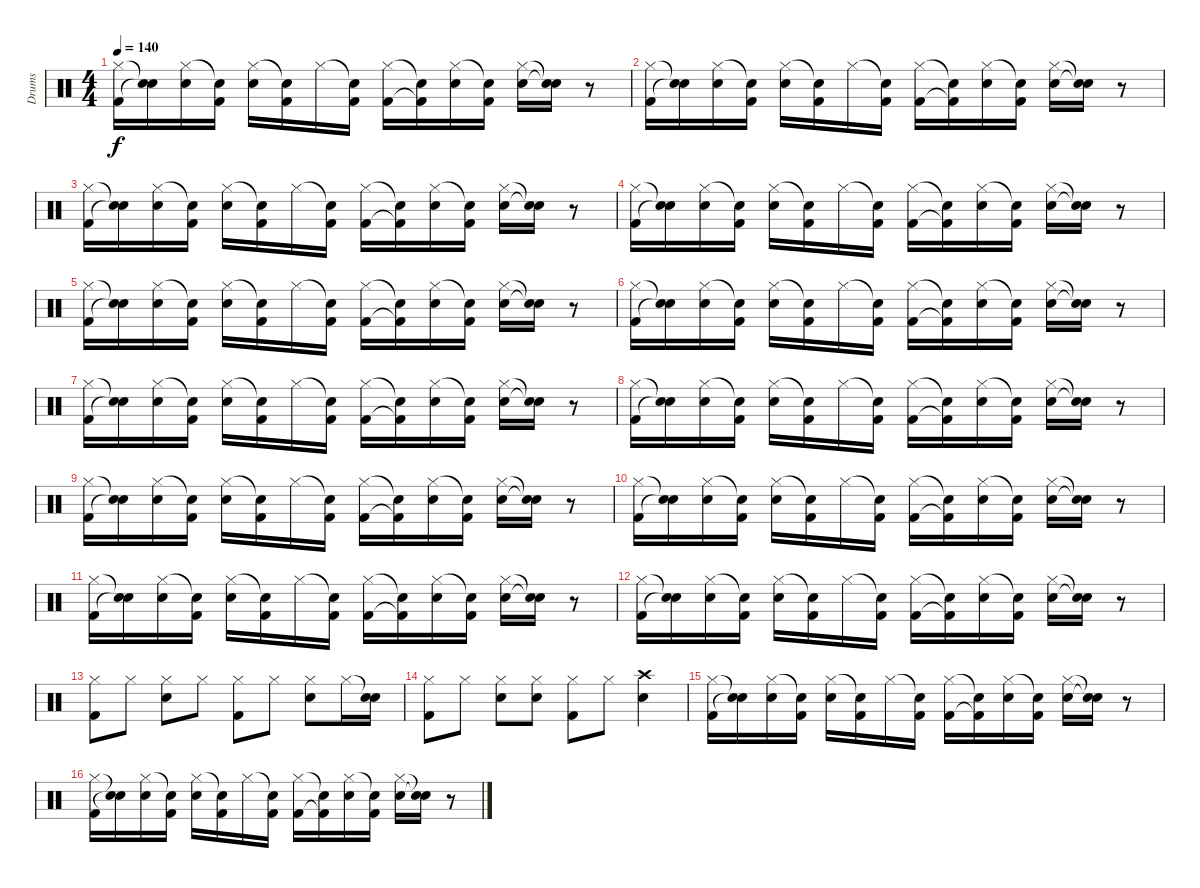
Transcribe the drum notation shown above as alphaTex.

\track ("Drums" "Drums") {instrument percussion}
\staff {score}
\articulation defaults
\ts (4 4)
\tempo 140
\clef neutral
\ks c
("Hi-Hat (closed)" "Kick (hit) 2").16{dy f} ("Snare (hit)"{t} "Snare (hit)"{t}).16 ("Hi-Hat (closed)" "Snare (hit) 2").16 ("Snare (hit)"{t} "Kick (hit) 2").16 ("Hi-Hat (closed)" "Snare (hit) 2").16 ("Snare (hit)"{t} "Kick (hit) 2").16 "Hi-Hat (closed)".16 ("Snare (hit)"{t} "Kick (hit) 2").16 ("Hi-Hat (closed)" "Kick (hit) 2").16 ("Snare (hit)"{t} "Kick (hit) 2"{t}).16 ("Hi-Hat (closed)" "Snare (hit) 2").16 ("Snare (hit)"{t} "Kick (hit) 2").16 ("Hi-Hat (closed)" "Snare (hit) 2").16 ("Snare (hit)"{t} "Snare (hit)"{t}).16 r.8 |
("Hi-Hat (closed)" "Kick (hit) 2").16 ("Snare (hit)"{t} "Snare (hit)"{t}).16 ("Hi-Hat (closed)" "Snare (hit) 2").16 ("Snare (hit)"{t} "Kick (hit) 2").16 ("Hi-Hat (closed)" "Snare (hit) 2").16 ("Snare (hit)"{t} "Kick (hit) 2").16 "Hi-Hat (closed)".16 ("Snare (hit)"{t} "Kick (hit) 2").16 ("Hi-Hat (closed)" "Kick (hit) 2").16 ("Snare (hit)"{t} "Kick (hit) 2"{t}).16 ("Hi-Hat (closed)" "Snare (hit) 2").16 ("Snare (hit)"{t} "Kick (hit) 2").16 ("Hi-Hat (closed)" "Snare (hit) 2").16 ("Snare (hit)"{t} "Snare (hit)"{t}).16 r.8 |
("Hi-Hat (closed)" "Kick (hit) 2").16 ("Snare (hit)"{t} "Snare (hit)"{t}).16 ("Hi-Hat (closed)" "Snare (hit) 2").16 ("Snare (hit)"{t} "Kick (hit) 2").16 ("Hi-Hat (closed)" "Snare (hit) 2").16 ("Snare (hit)"{t} "Kick (hit) 2").16 "Hi-Hat (closed)".16 ("Snare (hit)"{t} "Kick (hit) 2").16 ("Hi-Hat (closed)" "Kick (hit) 2").16 ("Snare (hit)"{t} "Kick (hit) 2"{t}).16 ("Hi-Hat (closed)" "Snare (hit) 2").16 ("Snare (hit)"{t} "Kick (hit) 2").16 ("Hi-Hat (closed)" "Snare (hit) 2").16 ("Snare (hit)"{t} "Snare (hit)"{t}).16 r.8 |
("Hi-Hat (closed)" "Kick (hit) 2").16 ("Snare (hit)"{t} "Snare (hit)"{t}).16 ("Hi-Hat (closed)" "Snare (hit) 2").16 ("Snare (hit)"{t} "Kick (hit) 2").16 ("Hi-Hat (closed)" "Snare (hit) 2").16 ("Snare (hit)"{t} "Kick (hit) 2").16 "Hi-Hat (closed)".16 ("Snare (hit)"{t} "Kick (hit) 2").16 ("Hi-Hat (closed)" "Kick (hit) 2").16 ("Snare (hit)"{t} "Kick (hit) 2"{t}).16 ("Hi-Hat (closed)" "Snare (hit) 2").16 ("Snare (hit)"{t} "Kick (hit) 2").16 ("Hi-Hat (closed)" "Snare (hit) 2").16 ("Snare (hit)"{t} "Snare (hit)"{t}).16 r.8 |
("Hi-Hat (closed)" "Kick (hit) 2").16 ("Snare (hit)"{t} "Snare (hit)"{t}).16 ("Hi-Hat (closed)" "Snare (hit) 2").16 ("Snare (hit)"{t} "Kick (hit) 2").16 ("Hi-Hat (closed)" "Snare (hit) 2").16 ("Snare (hit)"{t} "Kick (hit) 2").16 "Hi-Hat (closed)".16 ("Snare (hit)"{t} "Kick (hit) 2").16 ("Hi-Hat (closed)" "Kick (hit) 2").16 ("Snare (hit)"{t} "Kick (hit) 2"{t}).16 ("Hi-Hat (closed)" "Snare (hit) 2").16 ("Snare (hit)"{t} "Kick (hit) 2").16 ("Hi-Hat (closed)" "Snare (hit) 2").16 ("Snare (hit)"{t} "Snare (hit)"{t}).16 r.8 |
("Hi-Hat (closed)" "Kick (hit) 2").16 ("Snare (hit)"{t} "Snare (hit)"{t}).16 ("Hi-Hat (closed)" "Snare (hit) 2").16 ("Snare (hit)"{t} "Kick (hit) 2").16 ("Hi-Hat (closed)" "Snare (hit) 2").16 ("Snare (hit)"{t} "Kick (hit) 2").16 "Hi-Hat (closed)".16 ("Snare (hit)"{t} "Kick (hit) 2").16 ("Hi-Hat (closed)" "Kick (hit) 2").16 ("Snare (hit)"{t} "Kick (hit) 2"{t}).16 ("Hi-Hat (closed)" "Snare (hit) 2").16 ("Snare (hit)"{t} "Kick (hit) 2").16 ("Hi-Hat (closed)" "Snare (hit) 2").16 ("Snare (hit)"{t} "Snare (hit)"{t}).16 r.8 |
("Hi-Hat (closed)" "Kick (hit) 2").16 ("Snare (hit)"{t} "Snare (hit)"{t}).16 ("Hi-Hat (closed)" "Snare (hit) 2").16 ("Snare (hit)"{t} "Kick (hit) 2").16 ("Hi-Hat (closed)" "Snare (hit) 2").16 ("Snare (hit)"{t} "Kick (hit) 2").16 "Hi-Hat (closed)".16 ("Snare (hit)"{t} "Kick (hit) 2").16 ("Hi-Hat (closed)" "Kick (hit) 2").16 ("Snare (hit)"{t} "Kick (hit) 2"{t}).16 ("Hi-Hat (closed)" "Snare (hit) 2").16 ("Snare (hit)"{t} "Kick (hit) 2").16 ("Hi-Hat (closed)" "Snare (hit) 2").16 ("Snare (hit)"{t} "Snare (hit)"{t}).16 r.8 |
("Hi-Hat (closed)" "Kick (hit) 2").16 ("Snare (hit)"{t} "Snare (hit)"{t}).16 ("Hi-Hat (closed)" "Snare (hit) 2").16 ("Snare (hit)"{t} "Kick (hit) 2").16 ("Hi-Hat (closed)" "Snare (hit) 2").16 ("Snare (hit)"{t} "Kick (hit) 2").16 "Hi-Hat (closed)".16 ("Snare (hit)"{t} "Kick (hit) 2").16 ("Hi-Hat (closed)" "Kick (hit) 2").16 ("Snare (hit)"{t} "Kick (hit) 2"{t}).16 ("Hi-Hat (closed)" "Snare (hit) 2").16 ("Snare (hit)"{t} "Kick (hit) 2").16 ("Hi-Hat (closed)" "Snare (hit) 2").16 ("Snare (hit)"{t} "Snare (hit)"{t}).16 r.8 |
("Hi-Hat (closed)" "Kick (hit) 2").16 ("Snare (hit)"{t} "Snare (hit)"{t}).16 ("Hi-Hat (closed)" "Snare (hit) 2").16 ("Snare (hit)"{t} "Kick (hit) 2").16 ("Hi-Hat (closed)" "Snare (hit) 2").16 ("Snare (hit)"{t} "Kick (hit) 2").16 "Hi-Hat (closed)".16 ("Snare (hit)"{t} "Kick (hit) 2").16 ("Hi-Hat (closed)" "Kick (hit) 2").16 ("Snare (hit)"{t} "Kick (hit) 2"{t}).16 ("Hi-Hat (closed)" "Snare (hit) 2").16 ("Snare (hit)"{t} "Kick (hit) 2").16 ("Hi-Hat (closed)" "Snare (hit) 2").16 ("Snare (hit)"{t} "Snare (hit)"{t}).16 r.8 |
("Hi-Hat (closed)" "Kick (hit) 2").16 ("Snare (hit)"{t} "Snare (hit)"{t}).16 ("Hi-Hat (closed)" "Snare (hit) 2").16 ("Snare (hit)"{t} "Kick (hit) 2").16 ("Hi-Hat (closed)" "Snare (hit) 2").16 ("Snare (hit)"{t} "Kick (hit) 2").16 "Hi-Hat (closed)".16 ("Snare (hit)"{t} "Kick (hit) 2").16 ("Hi-Hat (closed)" "Kick (hit) 2").16 ("Snare (hit)"{t} "Kick (hit) 2"{t}).16 ("Hi-Hat (closed)" "Snare (hit) 2").16 ("Snare (hit)"{t} "Kick (hit) 2").16 ("Hi-Hat (closed)" "Snare (hit) 2").16 ("Snare (hit)"{t} "Snare (hit)"{t}).16 r.8 |
("Hi-Hat (closed)" "Kick (hit) 2").16 ("Snare (hit)"{t} "Snare (hit)"{t}).16 ("Hi-Hat (closed)" "Snare (hit) 2").16 ("Snare (hit)"{t} "Kick (hit) 2").16 ("Hi-Hat (closed)" "Snare (hit) 2").16 ("Snare (hit)"{t} "Kick (hit) 2").16 "Hi-Hat (closed)".16 ("Snare (hit)"{t} "Kick (hit) 2").16 ("Hi-Hat (closed)" "Kick (hit) 2").16 ("Snare (hit)"{t} "Kick (hit) 2"{t}).16 ("Hi-Hat (closed)" "Snare (hit) 2").16 ("Snare (hit)"{t} "Kick (hit) 2").16 ("Hi-Hat (closed)" "Snare (hit) 2").16 ("Snare (hit)"{t} "Snare (hit)"{t}).16 r.8 |
("Hi-Hat (closed)" "Kick (hit) 2").16 ("Snare (hit)"{t} "Snare (hit)"{t}).16 ("Hi-Hat (closed)" "Snare (hit) 2").16 ("Snare (hit)"{t} "Kick (hit) 2").16 ("Hi-Hat (closed)" "Snare (hit) 2").16 ("Snare (hit)"{t} "Kick (hit) 2").16 "Hi-Hat (closed)".16 ("Snare (hit)"{t} "Kick (hit) 2").16 ("Hi-Hat (closed)" "Kick (hit) 2").16 ("Snare (hit)"{t} "Kick (hit) 2"{t}).16 ("Hi-Hat (closed)" "Snare (hit) 2").16 ("Snare (hit)"{t} "Kick (hit) 2").16 ("Hi-Hat (closed)" "Snare (hit) 2").16 ("Snare (hit)"{t} "Snare (hit)"{t}).16 r.8 |
("Hi-Hat (closed)" "Kick (hit) 2").8 "Hi-Hat (closed)".8 ("Hi-Hat (closed)" "Snare (hit) 2").8 "Hi-Hat (closed)".8 ("Hi-Hat (closed)" "Kick (hit) 2").8 "Hi-Hat (closed)".8 ("Hi-Hat (closed)" "Snare (hit) 2").8 "Hi-Hat (closed)".16 ("Snare (hit)"{t} "Snare (hit) 2").16 |
("Hi-Hat (closed)" "Kick (hit) 2").8 "Hi-Hat (closed)".8 ("Hi-Hat (closed)" "Snare (hit) 2").8 ("Hi-Hat (closed)" "Snare (hit) 2").8 ("Hi-Hat (closed)" "Kick (hit) 2").8 "Hi-Hat (closed)".8 ("Crash high (hit)" "Snare (hit) 2").4 |
("Hi-Hat (closed)" "Kick (hit) 2").16 ("Snare (hit)"{t} "Snare (hit)"{t}).16 ("Hi-Hat (closed)" "Snare (hit) 2").16 ("Snare (hit)"{t} "Kick (hit) 2").16 ("Hi-Hat (closed)" "Snare (hit) 2").16 ("Snare (hit)"{t} "Kick (hit) 2").16 "Hi-Hat (closed)".16 ("Snare (hit)"{t} "Kick (hit) 2").16 ("Hi-Hat (closed)" "Kick (hit) 2").16 ("Snare (hit)"{t} "Kick (hit) 2"{t}).16 ("Hi-Hat (closed)" "Snare (hit) 2").16 ("Snare (hit)"{t} "Kick (hit) 2").16 ("Hi-Hat (closed)" "Snare (hit) 2").16 ("Snare (hit)"{t} "Snare (hit)"{t}).16 r.8 |
("Hi-Hat (closed)" "Kick (hit) 2").16 ("Snare (hit)"{t} "Snare (hit)"{t}).16 ("Hi-Hat (closed)" "Snare (hit) 2").16 ("Snare (hit)"{t} "Kick (hit) 2").16 ("Hi-Hat (closed)" "Snare (hit) 2").16 ("Snare (hit)"{t} "Kick (hit) 2").16 "Hi-Hat (closed)".16 ("Snare (hit)"{t} "Kick (hit) 2").16 ("Hi-Hat (closed)" "Kick (hit) 2").16 ("Snare (hit)"{t} "Kick (hit) 2"{t}).16 ("Hi-Hat (closed)" "Snare (hit) 2").16 ("Snare (hit)"{t} "Kick (hit) 2").16 ("Hi-Hat (closed)" "Snare (hit) 2").16 ("Snare (hit)"{t} "Snare (hit)"{t}).16 r.8
